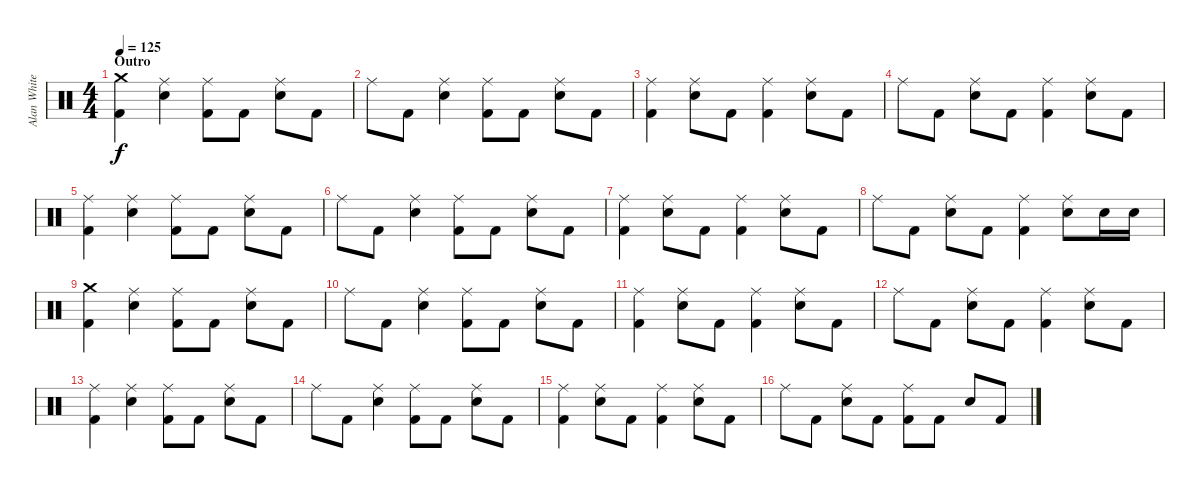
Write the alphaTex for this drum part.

\track ("Alan White" "Alan White") {instrument percussion}
\staff {score}
\articulation defaults
\ts (4 4)
\section ("" "Outro")
\tempo 125
\clef neutral
\ks c
("Crash medium (hit)" "Kick (hit) 2").4{dy f} ("Ride (middle)" "Snare (hit) 2").4 ("Ride (middle)" "Kick (hit) 2").8 "Kick (hit) 2".8 ("Ride (middle)" "Snare (hit) 2").8 "Kick (hit) 2".8 |
"Ride (middle)".8 "Kick (hit) 2".8 ("Ride (middle)" "Snare (hit) 2").4 ("Ride (middle)" "Kick (hit) 2").8 "Kick (hit) 2".8 ("Ride (middle)" "Snare (hit) 2").8 "Kick (hit) 2".8 |
("Ride (middle)" "Kick (hit) 2").4 ("Ride (middle)" "Snare (hit) 2").8 "Kick (hit) 2".8 ("Ride (middle)" "Kick (hit) 2").4 ("Ride (middle)" "Snare (hit) 2").8 "Kick (hit) 2".8 |
"Ride (middle)".8 "Kick (hit) 2".8 ("Ride (middle)" "Snare (hit) 2").8 "Kick (hit) 2".8 ("Ride (middle)" "Kick (hit) 2").4 ("Ride (middle)" "Snare (hit) 2").8 "Kick (hit) 2".8 |
("Ride (middle)" "Kick (hit) 2").4 ("Ride (middle)" "Snare (hit) 2").4 ("Ride (middle)" "Kick (hit) 2").8 "Kick (hit) 2".8 ("Ride (middle)" "Snare (hit) 2").8 "Kick (hit) 2".8 |
"Ride (middle)".8 "Kick (hit) 2".8 ("Ride (middle)" "Snare (hit) 2").4 ("Ride (middle)" "Kick (hit) 2").8 "Kick (hit) 2".8 ("Ride (middle)" "Snare (hit) 2").8 "Kick (hit) 2".8 |
("Ride (middle)" "Kick (hit) 2").4 ("Ride (middle)" "Snare (hit) 2").8 "Kick (hit) 2".8 ("Ride (middle)" "Kick (hit) 2").4 ("Ride (middle)" "Snare (hit) 2").8 "Kick (hit) 2".8 |
"Ride (middle)".8 "Kick (hit) 2".8 ("Ride (middle)" "Snare (hit) 2").8 "Kick (hit) 2".8 ("Ride (middle)" "Kick (hit) 2").4 ("Ride (middle)" "Snare (hit) 2").8 "Snare (hit) 2".16 "Snare (hit) 2".16 |
("Crash medium (hit)" "Kick (hit) 2").4 ("Ride (middle)" "Snare (hit) 2").4 ("Ride (middle)" "Kick (hit) 2").8 "Kick (hit) 2".8 ("Ride (middle)" "Snare (hit) 2").8 "Kick (hit) 2".8 |
"Ride (middle)".8 "Kick (hit) 2".8 ("Ride (middle)" "Snare (hit) 2").4 ("Ride (middle)" "Kick (hit) 2").8 "Kick (hit) 2".8 ("Ride (middle)" "Snare (hit) 2").8 "Kick (hit) 2".8 |
("Ride (middle)" "Kick (hit) 2").4 ("Ride (middle)" "Snare (hit) 2").8 "Kick (hit) 2".8 ("Ride (middle)" "Kick (hit) 2").4 ("Ride (middle)" "Snare (hit) 2").8 "Kick (hit) 2".8 |
"Ride (middle)".8 "Kick (hit) 2".8 ("Ride (middle)" "Snare (hit) 2").8 "Kick (hit) 2".8 ("Ride (middle)" "Kick (hit) 2").4 ("Ride (middle)" "Snare (hit) 2").8 "Kick (hit) 2".8 |
("Ride (middle)" "Kick (hit) 2").4 ("Ride (middle)" "Snare (hit) 2").4 ("Ride (middle)" "Kick (hit) 2").8 "Kick (hit) 2".8 ("Ride (middle)" "Snare (hit) 2").8 "Kick (hit) 2".8 |
"Ride (middle)".8 "Kick (hit) 2".8 ("Ride (middle)" "Snare (hit) 2").4 ("Ride (middle)" "Kick (hit) 2").8 "Kick (hit) 2".8 ("Ride (middle)" "Snare (hit) 2").8 "Kick (hit) 2".8 |
("Ride (middle)" "Kick (hit) 2").4 ("Ride (middle)" "Snare (hit) 2").8 "Kick (hit) 2".8 ("Ride (middle)" "Kick (hit) 2").4 ("Ride (middle)" "Snare (hit) 2").8 "Kick (hit) 2".8 |
"Ride (middle)".8 "Kick (hit) 2".8 ("Ride (middle)" "Snare (hit) 2").8 "Kick (hit) 2".8 ("Ride (middle)" "Kick (hit) 2").8 "Kick (hit) 2".8 "Snare (hit) 2".8 "Kick (hit) 2".8
